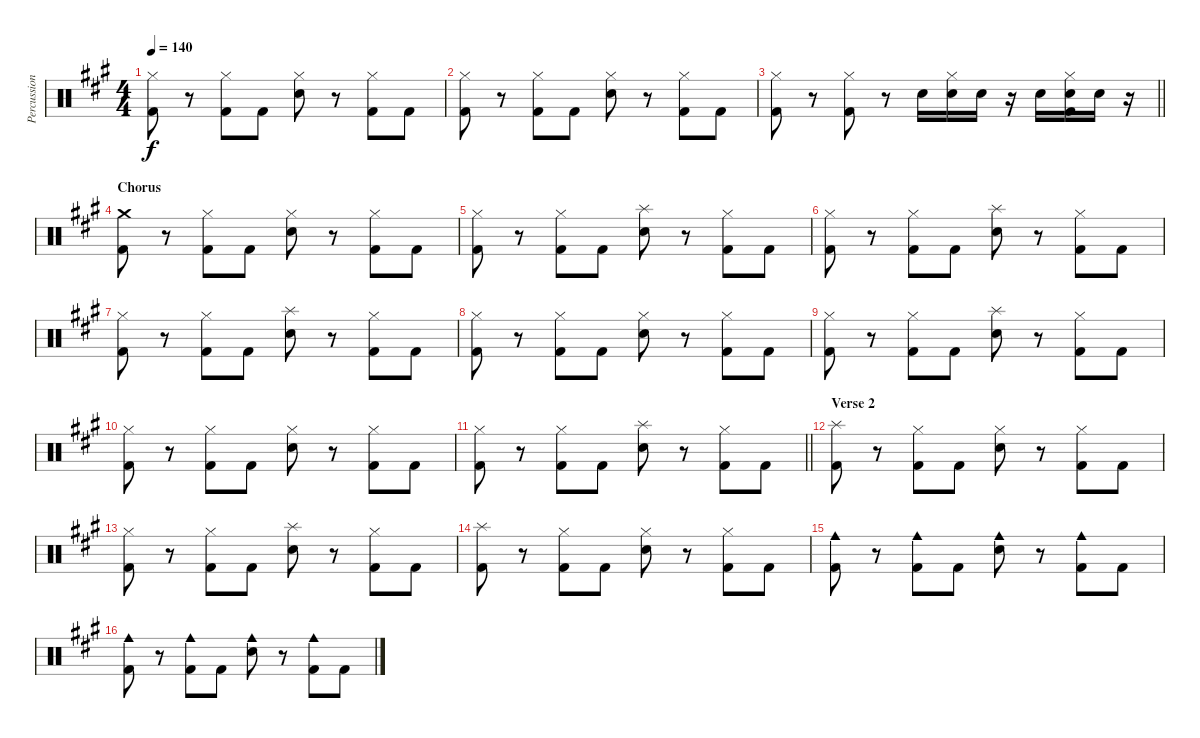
\track ("Percussion" "Percussion") {instrument percussion}
\staff {score}
\articulation defaults
\ts (4 4)
\tempo 140
\clef neutral
\ks a
("Hi-Hat (closed)" "Kick (hit) 2").8{dy f} r.8 ("Hi-Hat (closed)" "Kick (hit) 2").8 "Kick (hit) 2".8 ("Hi-Hat (closed)" "Snare (hit) 2").8 r.8 ("Hi-Hat (closed)" "Kick (hit) 2").8 "Kick (hit) 2".8 |
("Hi-Hat (closed)" "Kick (hit) 2").8 r.8 ("Hi-Hat (closed)" "Kick (hit) 2").8 "Kick (hit) 2".8 ("Hi-Hat (closed)" "Snare (hit) 2").8 r.8 ("Hi-Hat (closed)" "Kick (hit) 2").8 "Kick (hit) 2".8 |
\barLineRight lightlight
("Hi-Hat (closed)" "Kick (hit) 2").8 r.8 ("Hi-Hat (closed)" "Kick (hit) 2").8 r.8 "Snare (hit) 2".16 ("Hi-Hat (closed)" "Snare (hit) 2").16 "Snare (hit) 2".16 r.16 "Snare (hit) 2".16 ("Hi-Hat (closed)" "Snare (hit) 2" "Kick (hit) 2").16 "Snare (hit) 2".16 r.16 |
\section ("" "Chorus")
("Crash medium (hit)" "Kick (hit) 2").8 r.8 ("Hi-Hat (closed)" "Kick (hit) 2").8 "Kick (hit) 2".8 ("Hi-Hat (closed)" "Snare (hit) 2").8 r.8 ("Hi-Hat (closed)" "Kick (hit) 2").8 "Kick (hit) 2".8 |
("Hi-Hat (closed)" "Kick (hit) 2").8 r.8 ("Hi-Hat (closed)" "Kick (hit) 2").8 "Kick (hit) 2".8 ("Splash (hit)" "Snare (hit) 2").8 r.8 ("Hi-Hat (closed)" "Kick (hit) 2").8 "Kick (hit) 2".8 |
("Hi-Hat (closed)" "Kick (hit) 2").8 r.8 ("Hi-Hat (closed)" "Kick (hit) 2").8 "Kick (hit) 2".8 ("Splash (hit)" "Snare (hit) 2").8 r.8 ("Hi-Hat (closed)" "Kick (hit) 2").8 "Kick (hit) 2".8 |
("Hi-Hat (closed)" "Kick (hit) 2").8 r.8 ("Hi-Hat (closed)" "Kick (hit) 2").8 "Kick (hit) 2".8 ("Splash (hit)" "Snare (hit) 2").8 r.8 ("Hi-Hat (closed)" "Kick (hit) 2").8 "Kick (hit) 2".8 |
("Hi-Hat (closed)" "Kick (hit) 2").8 r.8 ("Hi-Hat (closed)" "Kick (hit) 2").8 "Kick (hit) 2".8 ("Hi-Hat (closed)" "Snare (hit) 2").8 r.8 ("Hi-Hat (closed)" "Kick (hit) 2").8 "Kick (hit) 2".8 |
("Hi-Hat (closed)" "Kick (hit) 2").8 r.8 ("Hi-Hat (closed)" "Kick (hit) 2").8 "Kick (hit) 2".8 ("Splash (hit)" "Snare (hit) 2").8 r.8 ("Hi-Hat (closed)" "Kick (hit) 2").8 "Kick (hit) 2".8 |
("Hi-Hat (closed)" "Kick (hit) 2").8 r.8 ("Hi-Hat (closed)" "Kick (hit) 2").8 "Kick (hit) 2".8 ("Hi-Hat (closed)" "Snare (hit) 2").8 r.8 ("Hi-Hat (closed)" "Kick (hit) 2").8 "Kick (hit) 2".8 |
\barLineRight lightlight
("Hi-Hat (closed)" "Kick (hit) 2").8 r.8 ("Hi-Hat (closed)" "Kick (hit) 2").8 "Kick (hit) 2".8 ("Splash (hit)" "Snare (hit) 2").8 r.8 ("Hi-Hat (closed)" "Kick (hit) 2").8 "Kick (hit) 2".8 |
\section ("" "Verse 2")
("Splash (hit)" "Kick (hit) 2").8 r.8 ("Hi-Hat (closed)" "Kick (hit) 2").8 "Kick (hit) 2".8 ("Hi-Hat (closed)" "Snare (hit) 2").8 r.8 ("Hi-Hat (closed)" "Kick (hit) 2").8 "Kick (hit) 2".8 |
("Hi-Hat (closed)" "Kick (hit) 2").8 r.8 ("Hi-Hat (closed)" "Kick (hit) 2").8 "Kick (hit) 2".8 ("Splash (hit)" "Snare (hit) 2").8 r.8 ("Hi-Hat (closed)" "Kick (hit) 2").8 "Kick (hit) 2".8 |
("Splash (hit)" "Kick (hit) 2").8 r.8 ("Hi-Hat (closed)" "Kick (hit) 2").8 "Kick (hit) 2".8 ("Hi-Hat (closed)" "Snare (hit) 2").8 r.8 ("Hi-Hat (closed)" "Kick (hit) 2").8 "Kick (hit) 2".8 |
("Cowbell medium (hit)" "Kick (hit) 2").8 r.8 ("Cowbell medium (hit)" "Kick (hit) 2").8 "Kick (hit) 2".8 ("Cowbell medium (hit)" "Snare (hit) 2").8 r.8 ("Cowbell medium (hit)" "Kick (hit) 2").8 "Kick (hit) 2".8 |
("Cowbell medium (hit)" "Kick (hit) 2").8 r.8 ("Cowbell medium (hit)" "Kick (hit) 2").8 "Kick (hit) 2".8 ("Cowbell medium (hit)" "Snare (hit) 2").8 r.8 ("Cowbell medium (hit)" "Kick (hit) 2").8 "Kick (hit) 2".8
